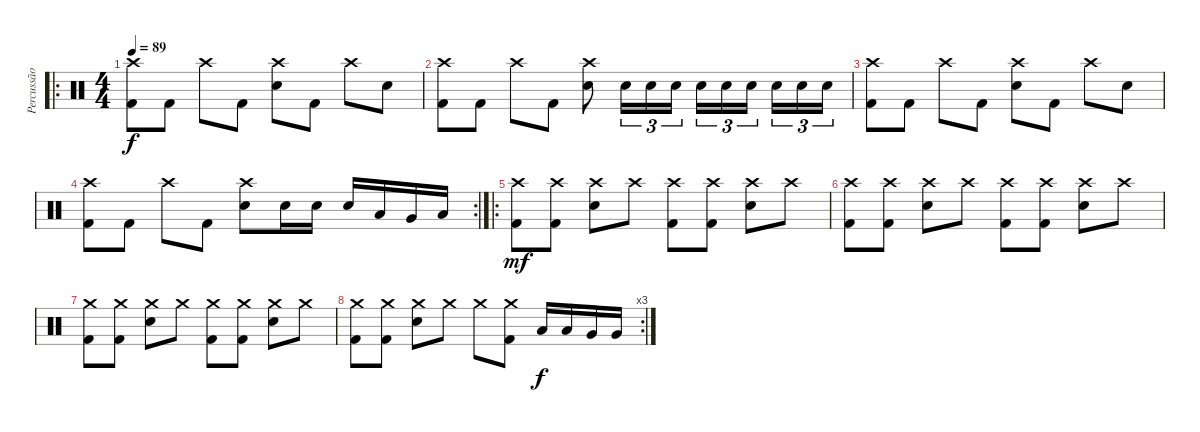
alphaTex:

\track ("Percussão" "Percussão") {instrument percussion}
\staff {score}
\articulation defaults
\ro
\ts (4 4)
\tempo 89
\clef neutral
\ks c
("Crash high (hit)" "Kick (hit) 2").8{dy f} "Kick (hit) 2".8 "Crash high (hit)".8 "Kick (hit) 2".8 ("Crash high (hit)" "Electric Snare (hit)").8 "Kick (hit) 2".8 "Crash high (hit)".8 "Electric Snare (hit)".8 |
("Crash high (hit)" "Kick (hit) 2").8 "Kick (hit) 2".8 "Crash high (hit)".8 "Kick (hit) 2".8 ("Crash high (hit)" "Electric Snare (hit)").8 "Electric Snare (hit)".16{tu (3 2)} "Electric Snare (hit)".16{tu (3 2)} "Electric Snare (hit)".16{tu (3 2)} "Electric Snare (hit)".16{tu (3 2)} "Electric Snare (hit)".16{tu (3 2)} "Electric Snare (hit)".16{tu (3 2) beam splitsecondary} "Electric Snare (hit)".16{tu (3 2)} "Electric Snare (hit)".16{tu (3 2)} "Electric Snare (hit)".16{tu (3 2)} |
("Crash high (hit)" "Kick (hit) 2").8 "Kick (hit) 2".8 "Crash high (hit)".8 "Kick (hit) 2".8 ("Crash high (hit)" "Electric Snare (hit)").8 "Kick (hit) 2".8 "Crash high (hit)".8 "Electric Snare (hit)".8 |
\rc 2
("Crash high (hit)" "Kick (hit) 2").8 "Kick (hit) 2".8 "Crash high (hit)".8 "Kick (hit) 2".8 ("Crash high (hit)" "Electric Snare (hit)").8 "Electric Snare (hit)".16 "Electric Snare (hit)".16 "Electric Snare (hit)".16 "Low Tom (hit)".16 "Very Low Tom (hit)".16 "Low Floor Tom (hit)".16 |
\ro
("Crash high (hit)" "Kick (hit) 2").8{dy mf} ("Crash high (hit)" "Kick (hit) 2").8 ("Crash high (hit)" "Electric Snare (hit)").8 "Crash high (hit)".8 ("Crash high (hit)" "Kick (hit) 2").8 ("Crash high (hit)" "Kick (hit) 2").8 ("Crash high (hit)" "Electric Snare (hit)").8 "Crash high (hit)".8 |
("Crash high (hit)" "Kick (hit) 2").8 ("Crash high (hit)" "Kick (hit) 2").8 ("Crash high (hit)" "Electric Snare (hit)").8 "Crash high (hit)".8 ("Crash high (hit)" "Kick (hit) 2").8 ("Crash high (hit)" "Kick (hit) 2").8 ("Crash high (hit)" "Electric Snare (hit)").8 "Crash high (hit)".8 |
("Crash medium (hit)" "Kick (hit) 2").8 ("Crash medium (hit)" "Kick (hit) 2").8 ("Crash medium (hit)" "Electric Snare (hit)").8 "Crash medium (hit)".8 ("Crash medium (hit)" "Kick (hit) 2").8 ("Crash medium (hit)" "Kick (hit) 2").8 ("Crash medium (hit)" "Electric Snare (hit)").8 "Crash medium (hit)".8 |
\rc 3
("Crash medium (hit)" "Kick (hit) 2").8 ("Crash medium (hit)" "Kick (hit) 2").8 ("Crash medium (hit)" "Electric Snare (hit)").8 "Crash medium (hit)".8 "Crash medium (hit)".8 ("Crash medium (hit)" "Kick (hit) 2").8 "Low Tom (hit)".16{dy f} "Low Tom (hit)".16 "Very Low Tom (hit)".16 "Very Low Tom (hit)".16
